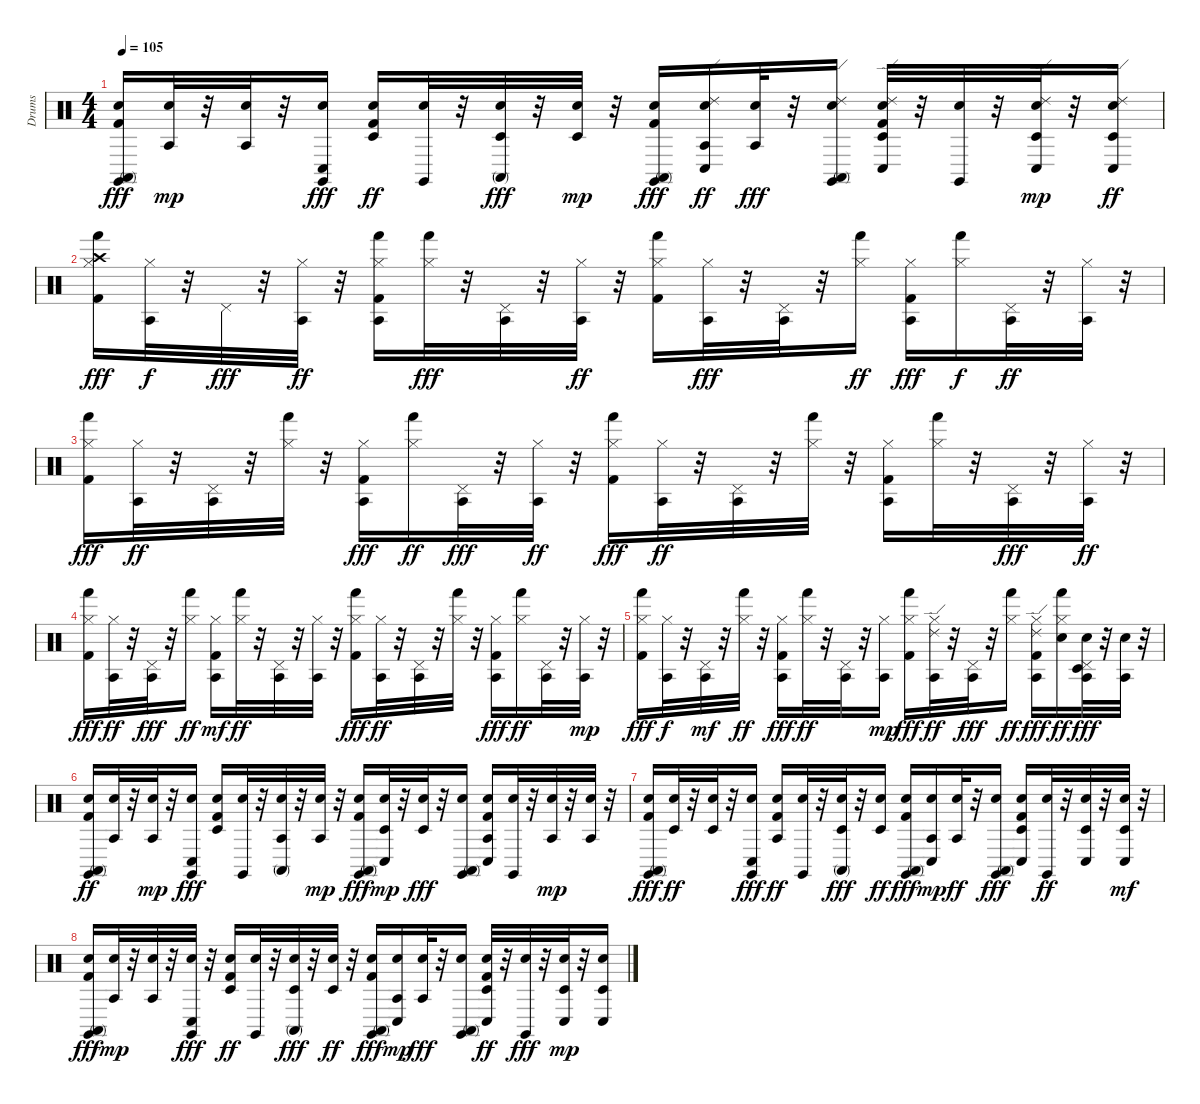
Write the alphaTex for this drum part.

\track ("Drums" "Drums") {instrument percussion}
\staff {score}
\articulation defaults
\ts (4 4)
\tempo 105
\clef neutral
\ks c
("Kick (hit) 2" "Snare (hit) 2" "Conga high (mute)" "Claves (hit)").16{dy fff} ("Agogo tow (hit)" "Snare (hit) 2").32{dy mp} r.32 ("Agogo tow (hit)" "Snare (hit) 2").32 r.32 ("Conga low (hit)" "Snare (hit) 2" "Claves (hit)").16{dy fff} ("Snare (hit) 2" "Kick (hit) 2" "Timbale low (hit)").16{dy ff} ("Snare (hit) 2" "Claves (hit)").32 r.32 ("Conga high (mute)" "Timbale low (hit)" "Snare (hit) 2").32{dy fff} r.32 ("Timbale low (hit)" "Snare (hit) 2").32{dy mp} r.32 ("Snare (hit) 2" "Kick (hit) 2" "Conga high (mute)" "Claves (hit)").16{dy fff} ("Ride (edge) 2" "Agogo tow (hit)" "Snare (hit) 2" "Conga low (hit)").16{dy ff} ("Agogo tow (hit)" "Snare (hit) 2").32{dy fff} r.32 ("Ride (edge) 2" "Conga high (mute)" "Snare (hit) 2" "Claves (hit)").16 ("Ride (edge) 2" "Timbale low (hit)" "Kick (hit) 2" "Snare (hit) 2" "Conga low (hit)").32 r.32 ("Snare (hit) 2" "Claves (hit)").32 r.32 ("Ride (edge) 2" "Conga low (hit)" "Timbale low (hit)" "Snare (hit) 2").32{dy mp} r.32 ("Ride (edge) 2" "Conga low (hit)" "Snare (hit) 2" "Timbale low (hit)").16{dy ff} |
("Kick (hit) 2" "Crash high (hit)" "Hi-Hat (closed)" "Hand (hit)").16{dy fff} ("Hi-Hat (closed)" "Agogo tow (hit)").32{dy f} r.32 "Pedal Hi-Hat (hit)".32{dy fff} r.32 ("Agogo tow (hit)" "Hi-Hat (closed)").32{dy ff} r.32 ("Hand (hit)" "Kick (hit) 2" "Hi-Hat (closed)" "Agogo tow (hit)").16 ("Hi-Hat (closed)" "Hand (hit)").32{dy fff} r.32 ("Pedal Hi-Hat (hit)" "Agogo tow (hit)").32 r.32 ("Hi-Hat (closed)" "Agogo tow (hit)").32{dy ff} r.32 ("Hand (hit)" "Kick (hit) 2" "Hi-Hat (closed)").16 ("Agogo tow (hit)" "Hi-Hat (closed)").32{dy fff} r.32 ("Agogo tow (hit)" "Pedal Hi-Hat (hit)").32 r.32 ("Hand (hit)" "Hi-Hat (closed)").16{dy ff} ("Agogo tow (hit)" "Kick (hit) 2" "Hi-Hat (closed)").16{dy fff} ("Hand (hit)" "Hi-Hat (closed)").16{dy f} ("Agogo tow (hit)" "Pedal Hi-Hat (hit)").32{dy ff} r.32 ("Agogo tow (hit)" "Hi-Hat (closed)").32 r.32 |
("Hand (hit)" "Hi-Hat (closed)" "Kick (hit) 2").16{dy fff} ("Agogo tow (hit)" "Hi-Hat (closed)").32{dy ff} r.32 ("Agogo tow (hit)" "Pedal Hi-Hat (hit)").32 r.32 ("Hi-Hat (closed)" "Hand (hit)").32 r.32 ("Agogo tow (hit)" "Hi-Hat (closed)" "Kick (hit) 2").16{dy fff} ("Hand (hit)" "Hi-Hat (closed)").16{dy ff} ("Agogo tow (hit)" "Pedal Hi-Hat (hit)").32{dy fff} r.32 ("Agogo tow (hit)" "Hi-Hat (closed)").32{dy ff} r.32 ("Hand (hit)" "Kick (hit) 2" "Hi-Hat (closed)").16{dy fff} ("Agogo tow (hit)" "Hi-Hat (closed)").32{dy ff} r.32 ("Agogo tow (hit)" "Pedal Hi-Hat (hit)").32 r.32 ("Hi-Hat (closed)" "Hand (hit)").32 r.32 ("Agogo tow (hit)" "Kick (hit) 2" "Hi-Hat (closed)").16 ("Hand (hit)" "Hi-Hat (closed)").32 r.32 ("Agogo tow (hit)" "Pedal Hi-Hat (hit)").32{dy fff} r.32 ("Agogo tow (hit)" "Hi-Hat (closed)").32{dy ff} r.32 |
("Hand (hit)" "Hi-Hat (closed)" "Kick (hit) 2").16{dy fff} ("Agogo tow (hit)" "Hi-Hat (closed)").32{dy ff} r.32 ("Agogo tow (hit)" "Pedal Hi-Hat (hit)").32{dy fff} r.32 ("Hi-Hat (closed)" "Hand (hit)").16{dy ff} ("Hi-Hat (closed)" "Kick (hit) 2" "Agogo tow (hit)").16{dy mf} ("Hi-Hat (closed)" "Hand (hit)").32{dy ff} r.32 ("Agogo tow (hit)" "Pedal Hi-Hat (hit)").32 r.32 ("Agogo tow (hit)" "Hi-Hat (closed)").32 r.32 ("Hand (hit)" "Hi-Hat (closed)" "Kick (hit) 2").16{dy fff} ("Agogo tow (hit)" "Hi-Hat (closed)").32{dy ff} r.32 ("Agogo tow (hit)" "Pedal Hi-Hat (hit)").32 r.32 ("Hand (hit)" "Hi-Hat (closed)").32 r.32 ("Hi-Hat (closed)" "Kick (hit) 2" "Agogo tow (hit)").16{dy fff} ("Hand (hit)" "Hi-Hat (closed)").16{dy ff} ("Agogo tow (hit)" "Pedal Hi-Hat (hit)").32 r.32 ("Agogo tow (hit)" "Hi-Hat (closed)").32{dy mp} r.32 |
("Hand (hit)" "Hi-Hat (closed)" "Kick (hit) 2").16{dy fff} ("Agogo tow (hit)" "Hi-Hat (closed)").32{dy f} r.32 ("Pedal Hi-Hat (hit)" "Agogo tow (hit)").32{dy mf} r.32 ("Hi-Hat (closed)" "Hand (hit)").32{dy ff} r.32 ("Agogo tow (hit)" "Hi-Hat (closed)" "Kick (hit) 2").16{dy fff} ("Hi-Hat (closed)" "Hand (hit)").32{dy ff} r.32 ("Agogo tow (hit)" "Pedal Hi-Hat (hit)").32 r.32 ("Agogo tow (hit)" "Hi-Hat (closed)").16{dy mp} ("Hand (hit)" "Hi-Hat (closed)" "Kick (hit) 2").16{dy fff} ("Ride (edge) 2" "Agogo tow (hit)" "Hi-Hat (closed)").32{dy ff} r.32 ("Pedal Hi-Hat (hit)" "Agogo tow (hit)").32{dy fff} r.32 ("Hand (hit)" "Hi-Hat (closed)").16{dy ff} ("Ride (edge) 2" "Agogo tow (hit)" "Hi-Hat (closed)" "Kick (hit) 2").16{dy fff} ("Hand (hit)" "Snare (hit) 2" "Hi-Hat (closed)").16{dy ff} ("Timbale low (hit)" "Agogo tow (hit)" "Snare (hit) 2" "Pedal Hi-Hat (hit)").32{dy fff} r.32 ("Agogo tow (hit)" "Snare (hit) 2").32 r.32 |
("Conga high (mute)" "Snare (hit) 2" "Kick (hit) 2" "Claves (hit)").16{dy ff} ("Snare (hit) 2" "Agogo tow (hit)").32 r.32 ("Snare (hit) 2" "Agogo tow (hit)").32{dy mp} r.32 ("Snare (hit) 2" "Conga low (hit)" "Claves (hit)").16{dy fff} ("Timbale low (hit)" "Snare (hit) 2" "Kick (hit) 2").16 ("Snare (hit) 2" "Claves (hit)").32 r.32 ("Conga high (mute)" "Agogo tow (hit)" "Snare (hit) 2").32 r.32 ("Agogo tow (hit)" "Snare (hit) 2").32{dy mp} r.32 ("Snare (hit) 2" "Kick (hit) 2" "Conga high (mute)" "Claves (hit)").16{dy fff} ("Snare (hit) 2" "Timbale low (hit)" "Conga low (hit)").32{dy mp} r.32 ("Timbale low (hit)" "Snare (hit) 2").32{dy fff} r.32 ("Conga high (mute)" "Snare (hit) 2" "Claves (hit)").16 ("Conga low (hit)" "Agogo tow (hit)" "Snare (hit) 2" "Kick (hit) 2").16 ("Snare (hit) 2" "Claves (hit)").32 r.32 ("Agogo tow (hit)" "Snare (hit) 2").32{dy mp} r.32 ("Agogo tow (hit)" "Snare (hit) 2").32 r.32 |
("Conga high (mute)" "Snare (hit) 2" "Kick (hit) 2" "Claves (hit)").16{dy fff} ("Snare (hit) 2" "Timbale low (hit)").32{dy ff} r.32 ("Snare (hit) 2" "Timbale low (hit)").32 r.32 ("Conga low (hit)" "Snare (hit) 2" "Claves (hit)").16{dy fff} ("Snare (hit) 2" "Kick (hit) 2" "Agogo tow (hit)").16{dy ff} ("Snare (hit) 2" "Claves (hit)").32 r.32 ("Conga high (mute)" "Timbale low (hit)" "Snare (hit) 2").32{dy fff} r.32 ("Snare (hit) 2" "Timbale low (hit)").16{dy ff} ("Conga high (mute)" "Snare (hit) 2" "Kick (hit) 2" "Claves (hit)").16{dy fff} ("Conga low (hit)" "Agogo tow (hit)" "Snare (hit) 2").16{dy mp} ("Snare (hit) 2" "Agogo tow (hit)").32{dy ff} r.32 ("Conga high (mute)" "Snare (hit) 2" "Claves (hit)").16{dy fff} ("Timbale low (hit)" "Snare (hit) 2" "Kick (hit) 2" "Conga low (hit)").16 ("Snare (hit) 2" "Claves (hit)").32{dy ff} r.32 ("Timbale low (hit)" "Snare (hit) 2" "Conga low (hit)").32 r.32 ("Timbale low (hit)" "Snare (hit) 2" "Conga low (hit)").32{dy mf} r.32 |
("Kick (hit) 2" "Snare (hit) 2" "Conga high (mute)" "Claves (hit)").16{dy fff} ("Agogo tow (hit)" "Snare (hit) 2").32{dy mp} r.32 ("Agogo tow (hit)" "Snare (hit) 2").32 r.32 ("Conga low (hit)" "Snare (hit) 2" "Claves (hit)").32{dy fff} r.32 ("Snare (hit) 2" "Kick (hit) 2" "Timbale low (hit)").16{dy ff} ("Snare (hit) 2" "Claves (hit)").32 r.32 ("Conga high (mute)" "Timbale low (hit)" "Snare (hit) 2").32{dy fff} r.32 ("Snare (hit) 2" "Timbale low (hit)").32{dy ff} r.32 ("Conga high (mute)" "Snare (hit) 2" "Kick (hit) 2" "Claves (hit)").16{dy fff} ("Conga low (hit)" "Agogo tow (hit)" "Snare (hit) 2").16{dy mp} ("Agogo tow (hit)" "Snare (hit) 2").32{dy fff} r.32 ("Conga high (mute)" "Snare (hit) 2" "Claves (hit)").16 ("Kick (hit) 2" "Snare (hit) 2" "Timbale low (hit)" "Conga low (hit)").32{dy ff} r.32 ("Snare (hit) 2" "Claves (hit)").32{dy fff} r.32 ("Timbale low (hit)" "Snare (hit) 2" "Conga low (hit)").32{dy mp} r.32 ("Conga low (hit)" "Timbale low (hit)" "Snare (hit) 2").16
